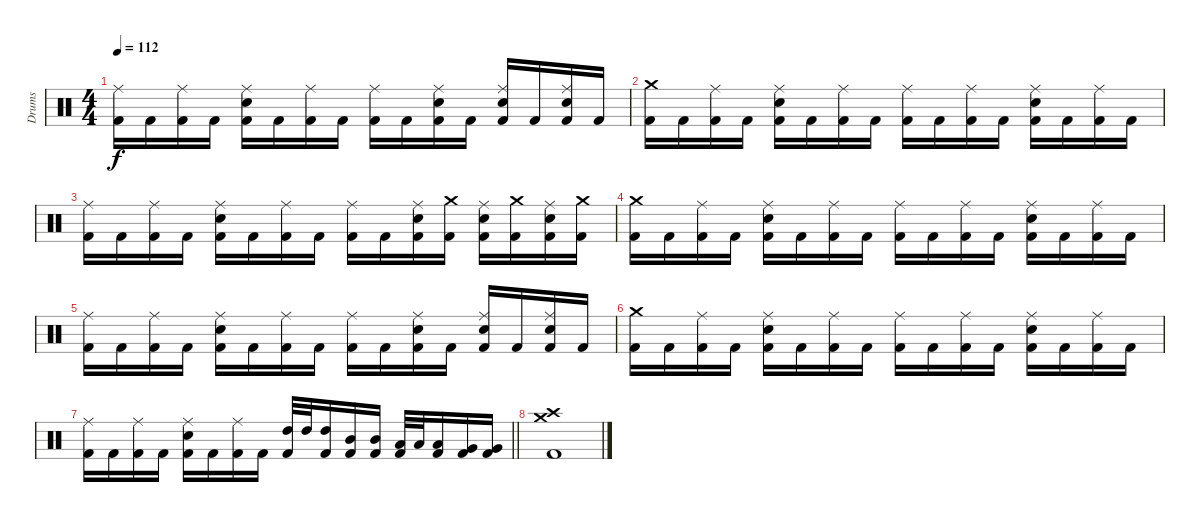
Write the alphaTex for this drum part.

\track ("Drums" "Drums") {instrument percussion}
\staff {score}
\articulation defaults
\ts (4 4)
\tempo 112
\clef neutral
\ks c
("Kick (hit) 2" "Ride (middle)").16{dy f} "Kick (hit) 2".16 ("Kick (hit) 2" "Ride (middle)").16 "Kick (hit) 2".16 ("Kick (hit) 2" "Snare (hit) 2" "Ride (middle)").16 "Kick (hit) 2".16 ("Kick (hit) 2" "Ride (middle)").16 "Kick (hit) 2".16 ("Kick (hit) 2" "Ride (middle)").16 "Kick (hit) 2".16 ("Kick (hit) 2" "Snare (hit) 2" "Ride (middle)").16 "Kick (hit) 2".16 ("Kick (hit) 2" "Snare (hit) 2" "Ride (middle)").16 "Kick (hit) 2".16 ("Kick (hit) 2" "Snare (hit) 2" "Ride (middle)").16 "Kick (hit) 2".16 |
("Kick (hit) 2" "Crash medium (hit)").16 "Kick (hit) 2".16 ("Kick (hit) 2" "Ride (middle)").16 "Kick (hit) 2".16 ("Kick (hit) 2" "Snare (hit) 2" "Ride (middle)").16 "Kick (hit) 2".16 ("Kick (hit) 2" "Ride (middle)").16 "Kick (hit) 2".16 ("Kick (hit) 2" "Ride (middle)").16 "Kick (hit) 2".16 ("Kick (hit) 2" "Ride (middle)").16 "Kick (hit) 2".16 ("Kick (hit) 2" "Snare (hit) 2" "Ride (middle)").16 "Kick (hit) 2".16 ("Kick (hit) 2" "Ride (middle)").16 "Kick (hit) 2".16 |
("Kick (hit) 2" "Ride (middle)").16 "Kick (hit) 2".16 ("Kick (hit) 2" "Ride (middle)").16 "Kick (hit) 2".16 ("Kick (hit) 2" "Snare (hit) 2" "Ride (middle)").16 "Kick (hit) 2".16 ("Kick (hit) 2" "Ride (middle)").16 "Kick (hit) 2".16 ("Kick (hit) 2" "Ride (middle)").16 "Kick (hit) 2".16 ("Kick (hit) 2" "Snare (hit) 2" "Ride (middle)").16 ("Kick (hit) 2" "Crash medium (hit)").16 ("Kick (hit) 2" "Snare (hit) 2" "Ride (middle)").16 ("Kick (hit) 2" "Crash medium (hit)").16 ("Kick (hit) 2" "Snare (hit) 2" "Ride (middle)").16 ("Kick (hit) 2" "Crash medium (hit)").16 |
("Kick (hit) 2" "Crash medium (hit)").16 "Kick (hit) 2".16 ("Kick (hit) 2" "Ride (middle)").16 "Kick (hit) 2".16 ("Kick (hit) 2" "Snare (hit) 2" "Ride (middle)").16 "Kick (hit) 2".16 ("Kick (hit) 2" "Ride (middle)").16 "Kick (hit) 2".16 ("Kick (hit) 2" "Ride (middle)").16 "Kick (hit) 2".16 ("Kick (hit) 2" "Ride (middle)").16 "Kick (hit) 2".16 ("Kick (hit) 2" "Snare (hit) 2" "Ride (middle)").16 "Kick (hit) 2".16 ("Kick (hit) 2" "Ride (middle)").16 "Kick (hit) 2".16 |
("Kick (hit) 2" "Ride (middle)").16 "Kick (hit) 2".16 ("Kick (hit) 2" "Ride (middle)").16 "Kick (hit) 2".16 ("Kick (hit) 2" "Snare (hit) 2" "Ride (middle)").16 "Kick (hit) 2".16 ("Kick (hit) 2" "Ride (middle)").16 "Kick (hit) 2".16 ("Kick (hit) 2" "Ride (middle)").16 "Kick (hit) 2".16 ("Kick (hit) 2" "Snare (hit) 2" "Ride (middle)").16 "Kick (hit) 2".16 ("Kick (hit) 2" "Snare (hit) 2" "Ride (middle)").16 "Kick (hit) 2".16 ("Kick (hit) 2" "Snare (hit) 2" "Ride (middle)").16 "Kick (hit) 2".16 |
("Kick (hit) 2" "Crash medium (hit)").16 "Kick (hit) 2".16 ("Kick (hit) 2" "Ride (middle)").16 "Kick (hit) 2".16 ("Kick (hit) 2" "Snare (hit) 2" "Ride (middle)").16 "Kick (hit) 2".16 ("Kick (hit) 2" "Ride (middle)").16 "Kick (hit) 2".16 ("Kick (hit) 2" "Ride (middle)").16 "Kick (hit) 2".16 ("Kick (hit) 2" "Ride (middle)").16 "Kick (hit) 2".16 ("Kick (hit) 2" "Snare (hit) 2" "Ride (middle)").16 "Kick (hit) 2".16 ("Kick (hit) 2" "Ride (middle)").16 "Kick (hit) 2".16 |
\barLineRight lightlight
("Kick (hit) 2" "Ride (middle)").16 "Kick (hit) 2".16 ("Kick (hit) 2" "Ride (middle)").16 "Kick (hit) 2".16 ("Kick (hit) 2" "Snare (hit) 2" "Ride (middle)").16 "Kick (hit) 2".16 ("Kick (hit) 2" "Ride (middle)").16 "Kick (hit) 2".16 ("Kick (hit) 2" "High Tom (hit)").32 "High Tom (hit)".32 ("Kick (hit) 2" "High Tom (hit)").16 ("Kick (hit) 2" "Mid Tom (hit)").16 ("Kick (hit) 2" "Mid Tom (hit)").16 ("Kick (hit) 2" "Low Tom (hit)").32 "Low Tom (hit)".32 ("Kick (hit) 2" "Low Tom (hit)").16 ("Kick (hit) 2" "Very Low Tom (hit)").16 ("Kick (hit) 2" "Very Low Tom (hit)").16 |
("Kick (hit) 2" "Crash medium (hit)" "Crash high (hit)").1
